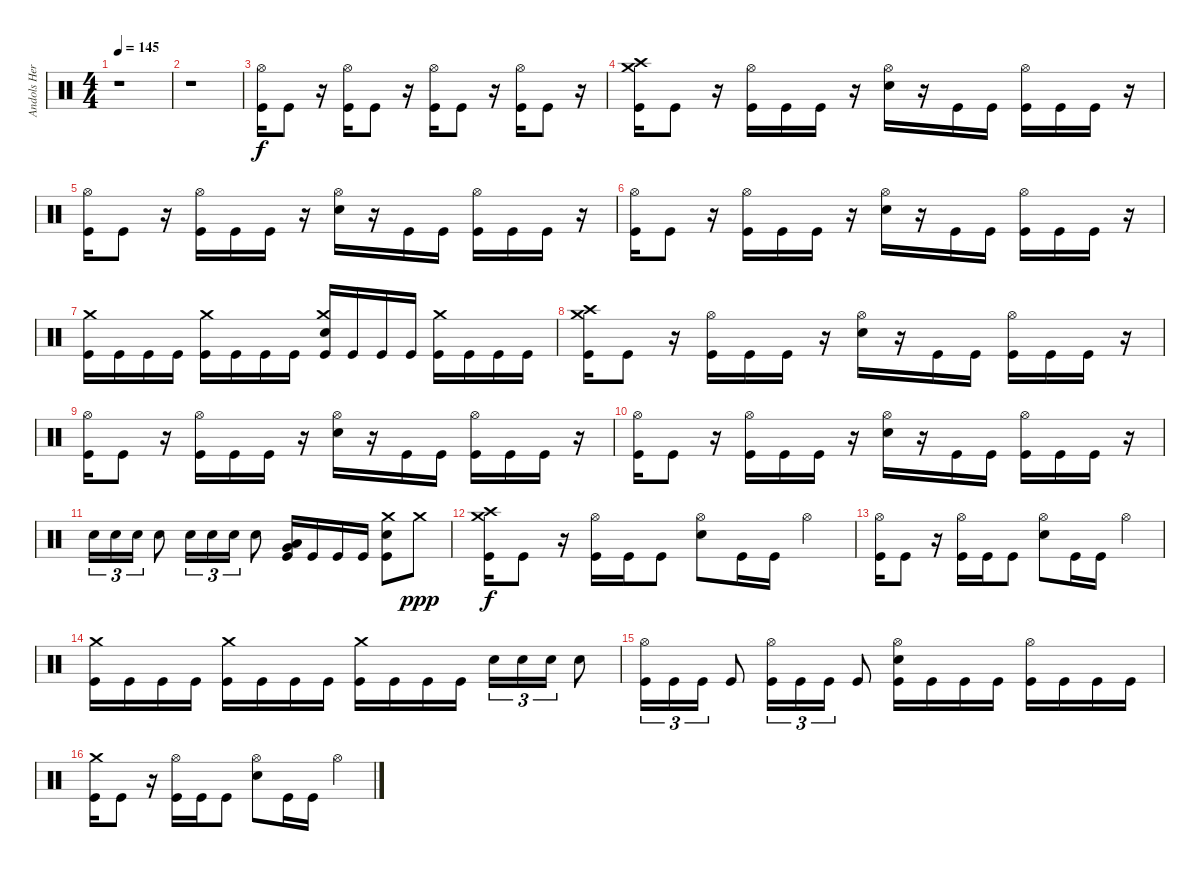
\track ("Andols Herrick" "Andols Her") {instrument percussion}
\staff
\articulation defaults
\ts (4 4)
\tempo 145
\clef neutral
\ks c
r.1{dy f} |
r.1 |
("Hi-Hat (open)" "Kick (hit)").16 "Kick (hit)".8 r.16 ("Hi-Hat (open)" "Kick (hit)").16 "Kick (hit)".8 r.16 ("Hi-Hat (open)" "Kick (hit)").16 "Kick (hit)".8 r.16 ("Hi-Hat (open)" "Kick (hit)").16 "Kick (hit)".8 r.16 |
("Crash medium (hit)" "Crash high (hit)" "Kick (hit)").16 "Kick (hit)".8 r.16 ("Hi-Hat (open)" "Kick (hit)").16 "Kick (hit)".16 "Kick (hit)".16 r.16 ("Hi-Hat (open)" "Electric Snare (hit)").16 r.16 "Kick (hit)".16 "Kick (hit)".16 ("Hi-Hat (open)" "Kick (hit)").16 "Kick (hit)".16 "Kick (hit)".16 r.16 |
("Hi-Hat (open)" "Kick (hit)").16 "Kick (hit)".8 r.16 ("Hi-Hat (open)" "Kick (hit)").16 "Kick (hit)".16 "Kick (hit)".16 r.16 ("Hi-Hat (open)" "Electric Snare (hit)").16 r.16 "Kick (hit)".16 "Kick (hit)".16 ("Hi-Hat (open)" "Kick (hit)").16 "Kick (hit)".16 "Kick (hit)".16 r.16 |
("Hi-Hat (open)" "Kick (hit)").16 "Kick (hit)".8 r.16 ("Hi-Hat (open)" "Kick (hit)").16 "Kick (hit)".16 "Kick (hit)".16 r.16 ("Hi-Hat (open)" "Electric Snare (hit)").16 r.16 "Kick (hit)".16 "Kick (hit)".16 ("Hi-Hat (open)" "Kick (hit)").16 "Kick (hit)".16 "Kick (hit)".16 r.16 |
("Crash medium (hit)" "Kick (hit)").16 "Kick (hit)".16 "Kick (hit)".16 "Kick (hit)".16 ("Crash medium (hit)" "Kick (hit)").16 "Kick (hit)".16 "Kick (hit)".16 "Kick (hit)".16 ("Crash medium (hit)" "Electric Snare (hit)" "Kick (hit)").16 "Kick (hit)".16 "Kick (hit)".16 "Kick (hit)".16 ("Crash medium (hit)" "Kick (hit)").16 "Kick (hit)".16 "Kick (hit)".16 "Kick (hit)".16 |
("Crash medium (hit)" "Crash high (hit)" "Kick (hit)").16 "Kick (hit)".8 r.16 ("Hi-Hat (open)" "Kick (hit)").16 "Kick (hit)".16 "Kick (hit)".16 r.16 ("Hi-Hat (open)" "Electric Snare (hit)").16 r.16 "Kick (hit)".16 "Kick (hit)".16 ("Hi-Hat (open)" "Kick (hit)").16 "Kick (hit)".16 "Kick (hit)".16 r.16 |
("Hi-Hat (open)" "Kick (hit)").16 "Kick (hit)".8 r.16 ("Hi-Hat (open)" "Kick (hit)").16 "Kick (hit)".16 "Kick (hit)".16 r.16 ("Hi-Hat (open)" "Electric Snare (hit)").16 r.16 "Kick (hit)".16 "Kick (hit)".16 ("Hi-Hat (open)" "Kick (hit)").16 "Kick (hit)".16 "Kick (hit)".16 r.16 |
("Hi-Hat (open)" "Kick (hit)").16 "Kick (hit)".8 r.16 ("Hi-Hat (open)" "Kick (hit)").16 "Kick (hit)".16 "Kick (hit)".16 r.16 ("Hi-Hat (open)" "Electric Snare (hit)").16 r.16 "Kick (hit)".16 "Kick (hit)".16 ("Hi-Hat (open)" "Kick (hit)").16 "Kick (hit)".16 "Kick (hit)".16 r.16 |
"Electric Snare (hit)".16{tu (3 2)} "Electric Snare (hit)".16{tu (3 2)} "Electric Snare (hit)".16{tu (3 2)} "Electric Snare (hit)".8 "Electric Snare (hit)".16{tu (3 2)} "Electric Snare (hit)".16{tu (3 2)} "Electric Snare (hit)".16{tu (3 2)} "Electric Snare (hit)".8 ("Very Low Tom (hit)" "Low Floor Tom (hit)" "Kick (hit)").16 "Kick (hit)".16 "Kick (hit)".16 "Kick (hit)".16 ("Crash medium (hit)" "Electric Snare (hit)" "Kick (hit)").8 "Crash medium (hit)".8{dy ppp} |
("Crash high (hit)" "Crash medium (hit)" "Kick (hit)").16{dy f} "Kick (hit)".8 r.16 ("Hi-Hat (open)" "Kick (hit)").16 "Kick (hit)".16 "Kick (hit)".8 ("Hi-Hat (open)" "Electric Snare (hit)").8 "Kick (hit)".16 "Kick (hit)".16 "Hi-Hat (open)".4 |
("Hi-Hat (open)" "Kick (hit)").16 "Kick (hit)".8 r.16 ("Hi-Hat (open)" "Kick (hit)").16 "Kick (hit)".16 "Kick (hit)".8 ("Hi-Hat (open)" "Electric Snare (hit)").8 "Kick (hit)".16 "Kick (hit)".16 "Hi-Hat (open)".4 |
("Crash medium (hit)" "Kick (hit)").16 "Kick (hit)".16 "Kick (hit)".16 "Kick (hit)".16 ("Crash medium (hit)" "Kick (hit)").16 "Kick (hit)".16 "Kick (hit)".16 "Kick (hit)".16 ("Crash medium (hit)" "Kick (hit)").16 "Kick (hit)".16 "Kick (hit)".16 "Kick (hit)".16 "Electric Snare (hit)".16{tu (3 2)} "Electric Snare (hit)".16{tu (3 2)} "Electric Snare (hit)".16{tu (3 2)} "Electric Snare (hit)".8 |
("Hi-Hat (open)" "Kick (hit)").16{tu (3 2)} "Kick (hit)".16{tu (3 2)} "Kick (hit)".16{tu (3 2)} "Kick (hit)".8 ("Hi-Hat (open)" "Kick (hit)").16{tu (3 2)} "Kick (hit)".16{tu (3 2)} "Kick (hit)".16{tu (3 2)} "Kick (hit)".8 ("Hi-Hat (open)" "Electric Snare (hit)" "Kick (hit)").16 "Kick (hit)".16 "Kick (hit)".16 "Kick (hit)".16 ("Hi-Hat (open)" "Kick (hit)").16 "Kick (hit)".16 "Kick (hit)".16 "Kick (hit)".16 |
("Crash medium (hit)" "Kick (hit)").16 "Kick (hit)".8 r.16 ("Hi-Hat (open)" "Kick (hit)").16 "Kick (hit)".16 "Kick (hit)".8 ("Hi-Hat (open)" "Electric Snare (hit)").8 "Kick (hit)".16 "Kick (hit)".16 "Hi-Hat (open)".4
